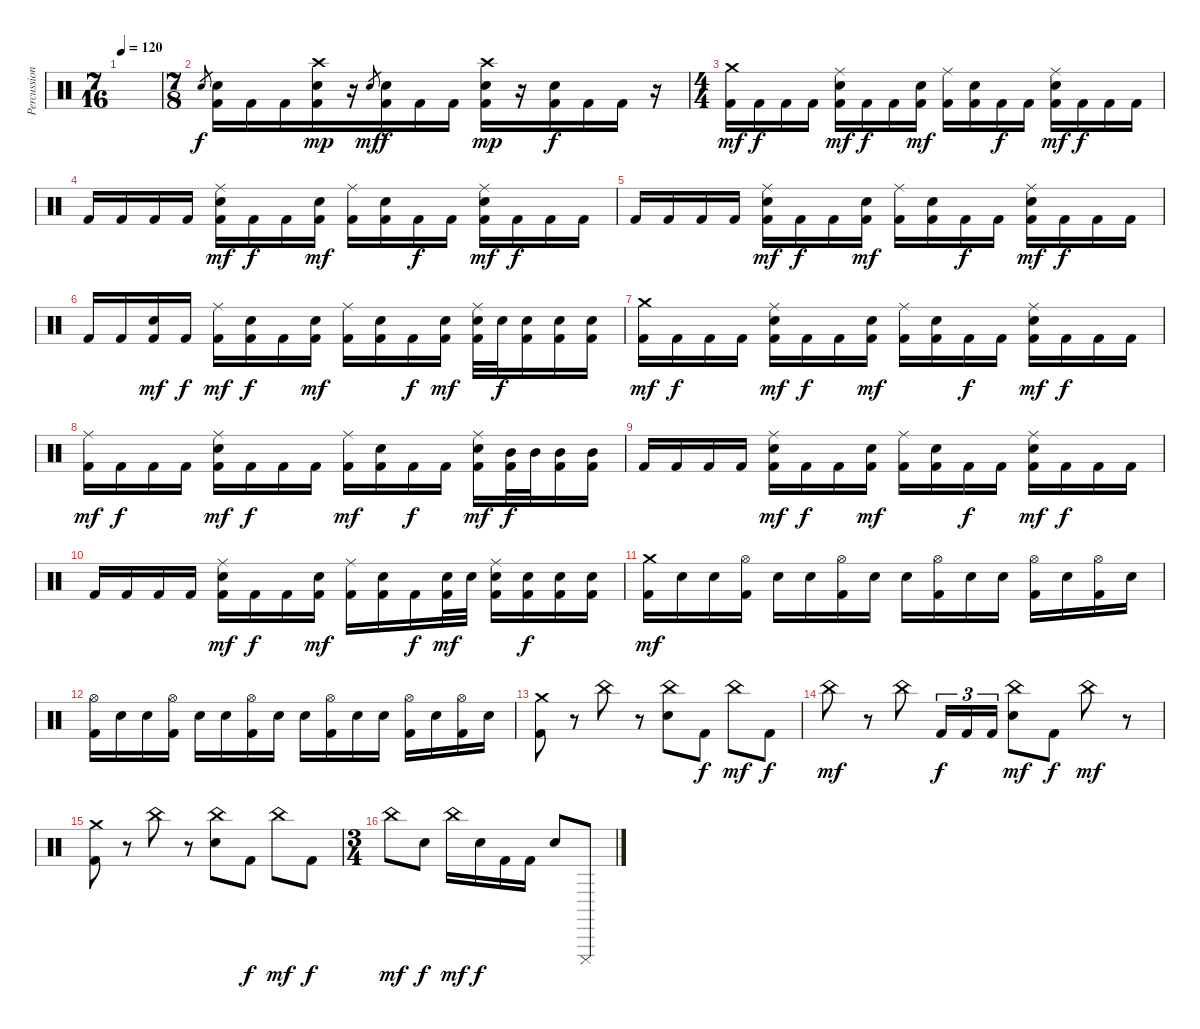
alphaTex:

\track ("Percussion" "Percussion") {instrument percussion}
\staff {score}
\articulation defaults
\ts (7 16)
\tempo 120
\clef neutral
\ks c
|
\ts (7 8)
"Electric Snare (hit)".8{gr} ("Electric Snare (hit)" "Kick (hit) 2").16{dy f} "Kick (hit) 2".16 "Kick (hit) 2".16 ("Crash high (hit)" "Electric Snare (hit)" "Kick (hit) 2").16{dy mp} r.16 "Electric Snare (hit)".8{gr dy mf} ("Electric Snare (hit)" "Kick (hit) 2").16{dy f} "Kick (hit) 2".16 "Kick (hit) 2".16 ("Crash high (hit)" "Electric Snare (hit)" "Kick (hit) 2").16{dy mp} r.16 ("Electric Snare (hit)" "Kick (hit) 2").16{dy f} "Kick (hit) 2".16 "Kick (hit) 2".16 r.16 |
\ts (4 4)
("Crash medium (hit)" "Kick (hit) 2").16{dy mf} "Kick (hit) 2".16{dy f} "Kick (hit) 2".16 "Kick (hit) 2".16 ("Ride (middle)" "Electric Snare (hit)" "Kick (hit) 2").16{dy mf} "Kick (hit) 2".16{dy f} "Kick (hit) 2".16 ("Electric Snare (hit)" "Kick (hit) 2").16{dy mf} ("Ride (middle)" "Kick (hit) 2").16 ("Electric Snare (hit)" "Kick (hit) 2").16 "Kick (hit) 2".16{dy f} "Kick (hit) 2".16 ("Ride (middle)" "Electric Snare (hit)" "Kick (hit) 2").16{dy mf} "Kick (hit) 2".16{dy f} "Kick (hit) 2".16 "Kick (hit) 2".16 |
"Kick (hit) 2".16 "Kick (hit) 2".16 "Kick (hit) 2".16 "Kick (hit) 2".16 ("Ride (middle)" "Electric Snare (hit)" "Kick (hit) 2").16{dy mf} "Kick (hit) 2".16{dy f} "Kick (hit) 2".16 ("Electric Snare (hit)" "Kick (hit) 2").16{dy mf} ("Ride (middle)" "Kick (hit) 2").16 ("Electric Snare (hit)" "Kick (hit) 2").16 "Kick (hit) 2".16{dy f} "Kick (hit) 2".16 ("Ride (middle)" "Electric Snare (hit)" "Kick (hit) 2").16{dy mf} "Kick (hit) 2".16{dy f} "Kick (hit) 2".16 "Kick (hit) 2".16 |
"Kick (hit) 2".16 "Kick (hit) 2".16 "Kick (hit) 2".16 "Kick (hit) 2".16 ("Ride (middle)" "Electric Snare (hit)" "Kick (hit) 2").16{dy mf} "Kick (hit) 2".16{dy f} "Kick (hit) 2".16 ("Electric Snare (hit)" "Kick (hit) 2").16{dy mf} ("Ride (middle)" "Kick (hit) 2").16 ("Electric Snare (hit)" "Kick (hit) 2").16 "Kick (hit) 2".16{dy f} "Kick (hit) 2".16 ("Ride (middle)" "Electric Snare (hit)" "Kick (hit) 2").16{dy mf} "Kick (hit) 2".16{dy f} "Kick (hit) 2".16 "Kick (hit) 2".16 |
"Kick (hit) 2".16 "Kick (hit) 2".16 ("Electric Snare (hit)" "Kick (hit) 2").16{dy mf} "Kick (hit) 2".16{dy f} ("Ride (middle)" "Kick (hit) 2").16{dy mf} ("Electric Snare (hit)" "Kick (hit) 2").16{dy f} "Kick (hit) 2".16 ("Electric Snare (hit)" "Kick (hit) 2").16{dy mf} ("Ride (middle)" "Kick (hit) 2").16 ("Electric Snare (hit)" "Kick (hit) 2").16 "Kick (hit) 2".16{dy f} ("Electric Snare (hit)" "Kick (hit) 2").16{dy mf} ("Ride (middle)" "Electric Snare (hit)" "Kick (hit) 2").32 "Electric Snare (hit)".32{dy f} ("Electric Snare (hit)" "Kick (hit) 2").16 ("Electric Snare (hit)" "Kick (hit) 2").16 ("Electric Snare (hit)" "Kick (hit) 2").16 |
("Crash medium (hit)" "Kick (hit) 2").16{dy mf} "Kick (hit) 2".16{dy f} "Kick (hit) 2".16 "Kick (hit) 2".16 ("Ride (middle)" "Electric Snare (hit)" "Kick (hit) 2").16{dy mf} "Kick (hit) 2".16{dy f} "Kick (hit) 2".16 ("Electric Snare (hit)" "Kick (hit) 2").16{dy mf} ("Ride (middle)" "Kick (hit) 2").16 ("Electric Snare (hit)" "Kick (hit) 2").16 "Kick (hit) 2".16{dy f} "Kick (hit) 2".16 ("Ride (middle)" "Electric Snare (hit)" "Kick (hit) 2").16{dy mf} "Kick (hit) 2".16{dy f} "Kick (hit) 2".16 "Kick (hit) 2".16 |
("Ride (middle)" "Kick (hit) 2").16{dy mf} "Kick (hit) 2".16{dy f} "Kick (hit) 2".16 "Kick (hit) 2".16 ("Ride (middle)" "Electric Snare (hit)" "Kick (hit) 2").16{dy mf} "Kick (hit) 2".16{dy f} "Kick (hit) 2".16 "Kick (hit) 2".16 ("Ride (middle)" "Kick (hit) 2").16{dy mf} ("Electric Snare (hit)" "Kick (hit) 2").16 "Kick (hit) 2".16{dy f} "Kick (hit) 2".16 ("Ride (middle)" "Electric Snare (hit)" "Kick (hit) 2").16{dy mf} ("Mid Tom (hit)" "Kick (hit) 2").32{dy f} "Mid Tom (hit)".32 ("Mid Tom (hit)" "Kick (hit) 2").16 ("Mid Tom (hit)" "Kick (hit) 2").16 |
"Kick (hit) 2".16 "Kick (hit) 2".16 "Kick (hit) 2".16 "Kick (hit) 2".16 ("Ride (middle)" "Electric Snare (hit)" "Kick (hit) 2").16{dy mf} "Kick (hit) 2".16{dy f} "Kick (hit) 2".16 ("Electric Snare (hit)" "Kick (hit) 2").16{dy mf} ("Ride (middle)" "Kick (hit) 2").16 ("Electric Snare (hit)" "Kick (hit) 2").16 "Kick (hit) 2".16{dy f} "Kick (hit) 2".16 ("Ride (middle)" "Electric Snare (hit)" "Kick (hit) 2").16{dy mf} "Kick (hit) 2".16{dy f} "Kick (hit) 2".16 "Kick (hit) 2".16 |
"Kick (hit) 2".16 "Kick (hit) 2".16 "Kick (hit) 2".16 "Kick (hit) 2".16 ("Ride (middle)" "Electric Snare (hit)" "Kick (hit) 2").16{dy mf} "Kick (hit) 2".16{dy f} "Kick (hit) 2".16 ("Electric Snare (hit)" "Kick (hit) 2").16{dy mf} ("Ride (middle)" "Kick (hit) 2").16 ("Electric Snare (hit)" "Kick (hit) 2").16 "Kick (hit) 2".16{dy f} ("Electric Snare (hit)" "Kick (hit) 2").32{dy mf} "Electric Snare (hit)".32 ("Ride (middle)" "Electric Snare (hit)" "Kick (hit) 2").16 ("Electric Snare (hit)" "Kick (hit) 2").16{dy f} ("Electric Snare (hit)" "Kick (hit) 2").16 ("Electric Snare (hit)" "Kick (hit) 2").16 |
("Crash medium (hit)" "Kick (hit) 2").16{dy mf} "Electric Snare (hit)".16 "Electric Snare (hit)".16 ("Hi-Hat (open)" "Kick (hit) 2").16 "Electric Snare (hit)".16 "Electric Snare (hit)".16 ("Hi-Hat (open)" "Kick (hit) 2").16 "Electric Snare (hit)".16 "Electric Snare (hit)".16 ("Hi-Hat (open)" "Kick (hit) 2").16 "Electric Snare (hit)".16 "Electric Snare (hit)".16 ("Hi-Hat (open)" "Kick (hit) 2").16 "Electric Snare (hit)".16 ("Hi-Hat (open)" "Kick (hit) 2").16 "Electric Snare (hit)".16 |
("Hi-Hat (open)" "Kick (hit) 2").16 "Electric Snare (hit)".16 "Electric Snare (hit)".16 ("Hi-Hat (open)" "Kick (hit) 2").16 "Electric Snare (hit)".16 "Electric Snare (hit)".16 ("Hi-Hat (open)" "Kick (hit) 2").16 "Electric Snare (hit)".16 "Electric Snare (hit)".16 ("Hi-Hat (open)" "Kick (hit) 2").16 "Electric Snare (hit)".16 "Electric Snare (hit)".16 ("Hi-Hat (open)" "Kick (hit) 2").16 "Electric Snare (hit)".16 ("Hi-Hat (open)" "Kick (hit) 2").16 "Electric Snare (hit)".16 |
("Crash medium (hit)" "Kick (hit) 2").8 r.8 "China (hit)".8 r.8 ("China (hit)" "Electric Snare (hit)").8 "Kick (hit) 2".8{dy f} "China (hit)".8{dy mf} "Kick (hit) 2".8{dy f} |
"China (hit)".8{dy mf} r.8 "China (hit)".8 "Kick (hit) 2".16{tu (3 2) dy f} "Kick (hit) 2".16{tu (3 2)} "Kick (hit) 2".16{tu (3 2)} ("China (hit)" "Electric Snare (hit)").8{dy mf} "Kick (hit) 2".8{dy f} "China (hit)".8{dy mf} r.8 |
("Crash medium (hit)" "Kick (hit) 2").8 r.8 "China (hit)".8 r.8 ("China (hit)" "Electric Snare (hit)").8 "Kick (hit) 2".8{dy f} "China (hit)".8{dy mf} "Kick (hit) 2".8{dy f} |
\ts (3 4)
"China (hit)".8{dy mf} "Electric Snare (hit)".8{dy f} "China (hit)".16{dy mf} "Electric Snare (hit)".16{dy f} "Kick (hit) 2".16 "Kick (hit) 2".16 "Electric Snare (hit)".8 "Cuica (mute)".8
